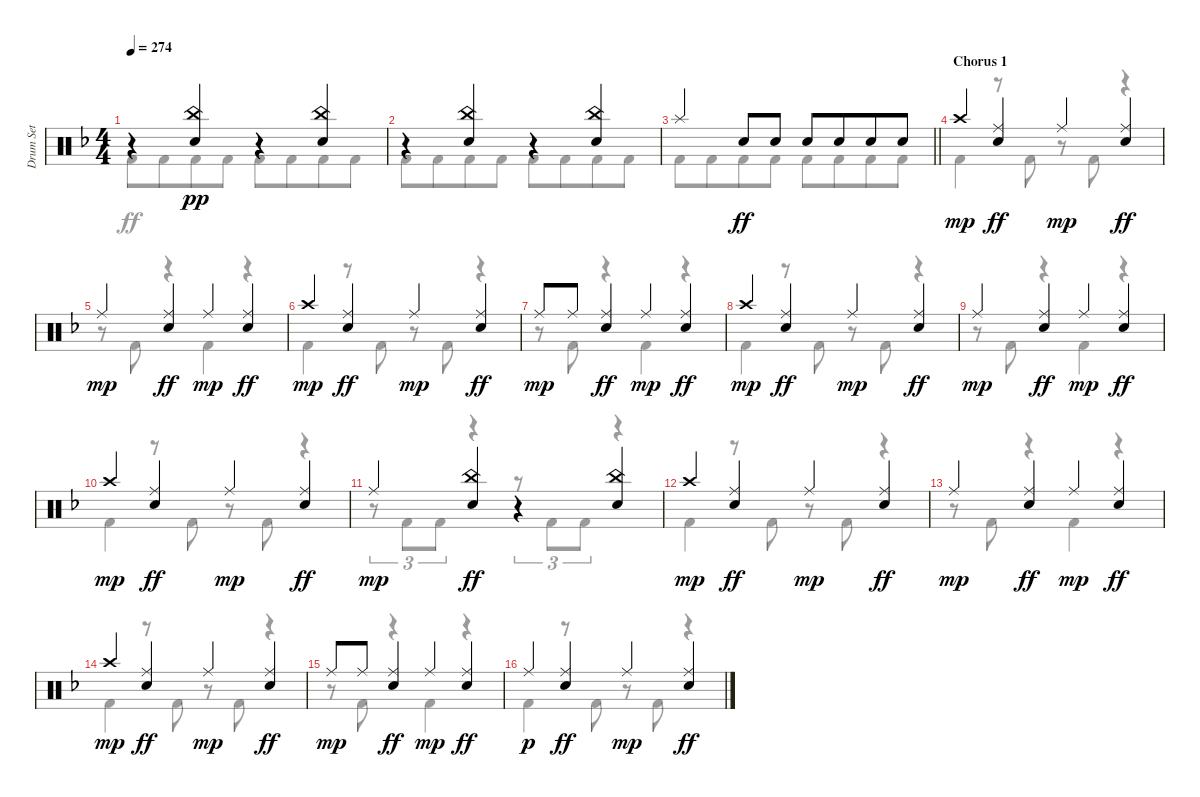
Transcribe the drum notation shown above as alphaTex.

\track ("Drum Set" "Drum Set") {instrument percussion}
\staff {score}
\articulation defaults
\voice
\ts (4 4)
\tempo 274
\clef neutral
\ks dminor
r.4{dy pp} ("Electric Snare (hit)" "China (hit)").4 r.4 ("Electric Snare (hit)" "China (hit)").4 |
r.4 ("Electric Snare (hit)" "China (hit)").4 r.4 ("Electric Snare (hit)" "China (hit)").4 |
\barLineRight lightlight "Splash (hit)".4 "Electric Snare (hit)".8{dy ff} "Electric Snare (hit)".8 "Electric Snare (hit)".8 "Electric Snare (hit)".8{beam merge} "Electric Snare (hit)".8 "Electric Snare (hit)".8
|
\section ("" "Chorus 1")
"Crash high (hit)".4{dy mp} ("Ride (middle)" "Electric Snare (hit)").4{dy ff} "Ride (middle)".4{dy mp} ("Ride (middle)" "Electric Snare (hit)").4{dy ff} |
"Ride (middle)".4{dy mp} ("Ride (middle)" "Electric Snare (hit)").4{dy ff} "Ride (middle)".4{dy mp} ("Ride (middle)" "Electric Snare (hit)").4{dy ff} |
"Crash high (hit)".4{dy mp} ("Ride (middle)" "Electric Snare (hit)").4{dy ff} "Ride (middle)".4{dy mp} ("Ride (middle)" "Electric Snare (hit)").4{dy ff} |
"Ride (middle)".8{dy mp} "Ride (middle)".8 ("Ride (middle)" "Electric Snare (hit)").4{dy ff} "Ride (middle)".4{dy mp} ("Ride (middle)" "Electric Snare (hit)").4{dy ff} |
"Crash high (hit)".4{dy mp} ("Ride (middle)" "Electric Snare (hit)").4{dy ff} "Ride (middle)".4{dy mp} ("Ride (middle)" "Electric Snare (hit)").4{dy ff} |
"Ride (middle)".4{dy mp} ("Ride (middle)" "Electric Snare (hit)").4{dy ff} "Ride (middle)".4{dy mp} ("Ride (middle)" "Electric Snare (hit)").4{dy ff} |
"Crash high (hit)".4{dy mp} ("Ride (middle)" "Electric Snare (hit)").4{dy ff} "Ride (middle)".4{dy mp} ("Ride (middle)" "Electric Snare (hit)").4{dy ff} |
"Ride (middle)".4{dy mp} ("China (hit)" "Electric Snare (hit)").4{dy ff} r.4 ("China (hit)" "Electric Snare (hit)").4 |
"Crash high (hit)".4{dy mp} ("Ride (middle)" "Electric Snare (hit)").4{dy ff} "Ride (middle)".4{dy mp} ("Ride (middle)" "Electric Snare (hit)").4{dy ff} |
"Ride (middle)".4{dy mp} ("Ride (middle)" "Electric Snare (hit)").4{dy ff} "Ride (middle)".4{dy mp} ("Ride (middle)" "Electric Snare (hit)").4{dy ff} |
"Crash high (hit)".4{dy mp} ("Ride (middle)" "Electric Snare (hit)").4{dy ff} "Ride (middle)".4{dy mp} ("Ride (middle)" "Electric Snare (hit)").4{dy ff} |
"Ride (middle)".8{dy mp} "Ride (middle)".8 ("Ride (middle)" "Electric Snare (hit)").4{dy ff} "Ride (middle)".4{dy mp} ("Ride (middle)" "Electric Snare (hit)").4{dy ff} |
"Ride (middle)".4{dy p} ("Ride (middle)" "Electric Snare (hit)").4{dy ff} "Ride (middle)".4{dy mp} ("Ride (middle)" "Electric Snare (hit)").4{dy ff}
\voice
\clef neutral
\ottava regular
\simile none
\ks dminor "Kick (hit) 2".8{dy ff} "Kick (hit) 2".8{beam merge} "Kick (hit) 2".8 "Kick (hit) 2".8 "Kick (hit) 2".8 "Kick (hit) 2".8{beam merge} "Kick (hit) 2".8 "Kick (hit) 2".8
|
"Kick (hit) 2".8 "Kick (hit) 2".8{beam merge} "Kick (hit) 2".8 "Kick (hit) 2".8 "Kick (hit) 2".8 "Kick (hit) 2".8{beam merge} "Kick (hit) 2".8 "Kick (hit) 2".8 |
\barLineRight lightlight "Kick (hit) 2".8 "Kick (hit) 2".8{beam merge} "Kick (hit) 2".8 "Kick (hit) 2".8 "Kick (hit) 2".8 "Kick (hit) 2".8{beam merge} "Kick (hit) 2".8 "Kick (hit) 2".8
|
"Kick (hit) 2".4 r.8 "Kick (hit) 2".8 r.8 "Kick (hit) 2".8 r.4 |
r.8 "Kick (hit) 2".8 r.4 "Kick (hit) 2".4 r.4 |
"Kick (hit) 2".4 r.8 "Kick (hit) 2".8 r.8 "Kick (hit) 2".8 r.4 |
r.8 "Kick (hit) 2".8 r.4 "Kick (hit) 2".4 r.4 |
"Kick (hit) 2".4 r.8 "Kick (hit) 2".8 r.8 "Kick (hit) 2".8 r.4 |
r.8 "Kick (hit) 2".8 r.4 "Kick (hit) 2".4 r.4 |
"Kick (hit) 2".4 r.8 "Kick (hit) 2".8 r.8 "Kick (hit) 2".8 r.4 |
r.8{tu (3 2)} "Kick (hit) 2".8{tu (3 2)} "Kick (hit) 2".8{tu (3 2)} r.4 r.8{tu (3 2)} "Kick (hit) 2".8{tu (3 2)} "Kick (hit) 2".8{tu (3 2)} r.4 |
"Kick (hit) 2".4 r.8 "Kick (hit) 2".8 r.8 "Kick (hit) 2".8 r.4 |
r.8 "Kick (hit) 2".8 r.4 "Kick (hit) 2".4 r.4 |
"Kick (hit) 2".4 r.8 "Kick (hit) 2".8 r.8 "Kick (hit) 2".8 r.4 |
r.8 "Kick (hit) 2".8 r.4 "Kick (hit) 2".4 r.4 |
"Kick (hit) 2".4 r.8 "Kick (hit) 2".8 r.8 "Kick (hit) 2".8 r.4
